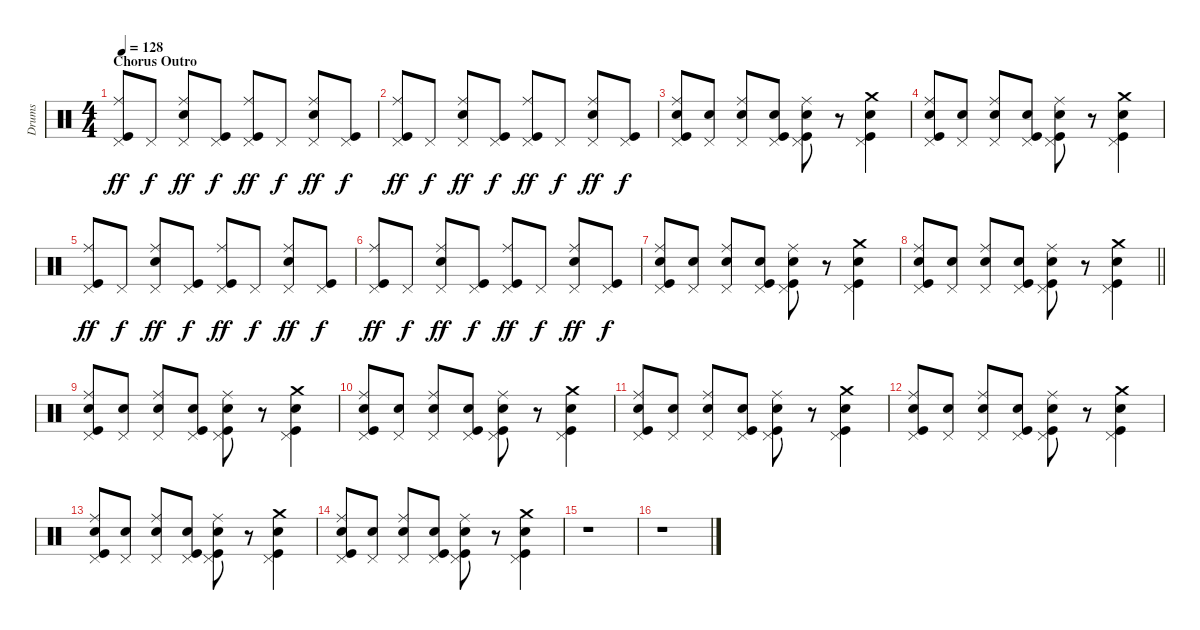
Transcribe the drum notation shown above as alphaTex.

\track ("Drums" "Drums") {instrument percussion}
\staff {score}
\articulation defaults
\ts (4 4)
\section ("" "Chorus Outro")
\tempo 128
\clef neutral
\ks c
("Ride (middle)" "Pedal Hi-Hat (hit)" "Kick (hit)").8{dy ff} "Pedal Hi-Hat (hit)".8{dy f} ("Ride (middle)" "Snare (hit) 2" "Pedal Hi-Hat (hit)").8{dy ff} ("Pedal Hi-Hat (hit)" "Kick (hit)").8{dy f} ("Ride (middle)" "Pedal Hi-Hat (hit)" "Kick (hit)").8{dy ff} "Pedal Hi-Hat (hit)".8{dy f} ("Ride (middle)" "Snare (hit) 2" "Pedal Hi-Hat (hit)").8{dy ff} ("Pedal Hi-Hat (hit)" "Kick (hit)").8{dy f} |
("Ride (middle)" "Pedal Hi-Hat (hit)" "Kick (hit)").8{dy ff} "Pedal Hi-Hat (hit)".8{dy f} ("Ride (middle)" "Snare (hit) 2" "Pedal Hi-Hat (hit)").8{dy ff} ("Pedal Hi-Hat (hit)" "Kick (hit)").8{dy f} ("Ride (middle)" "Pedal Hi-Hat (hit)" "Kick (hit)").8{dy ff} "Pedal Hi-Hat (hit)".8{dy f} ("Ride (middle)" "Snare (hit) 2" "Pedal Hi-Hat (hit)").8{dy ff} ("Pedal Hi-Hat (hit)" "Kick (hit)").8{dy f} |
("Ride (middle)" "Pedal Hi-Hat (hit)" "Snare (hit) 2" "Kick (hit)").8 ("Pedal Hi-Hat (hit)" "Snare (hit) 2").8 ("Ride (middle)" "Pedal Hi-Hat (hit)" "Snare (hit) 2").8 ("Pedal Hi-Hat (hit)" "Snare (hit) 2" "Kick (hit)").8 ("Ride (middle)" "Pedal Hi-Hat (hit)" "Snare (hit) 2" "Kick (hit)").8 r.8 ("Crash medium (hit)" "Pedal Hi-Hat (hit)" "Snare (hit) 2" "Kick (hit)").4 |
("Ride (middle)" "Pedal Hi-Hat (hit)" "Snare (hit) 2" "Kick (hit)").8 ("Pedal Hi-Hat (hit)" "Snare (hit) 2").8 ("Ride (middle)" "Pedal Hi-Hat (hit)" "Snare (hit) 2").8 ("Pedal Hi-Hat (hit)" "Snare (hit) 2" "Kick (hit)").8 ("Ride (middle)" "Pedal Hi-Hat (hit)" "Snare (hit) 2" "Kick (hit)").8 r.8 ("Crash medium (hit)" "Pedal Hi-Hat (hit)" "Snare (hit) 2" "Kick (hit)").4 |
("Ride (middle)" "Pedal Hi-Hat (hit)" "Kick (hit)").8{dy ff} "Pedal Hi-Hat (hit)".8{dy f} ("Ride (middle)" "Snare (hit) 2" "Pedal Hi-Hat (hit)").8{dy ff} ("Pedal Hi-Hat (hit)" "Kick (hit)").8{dy f} ("Ride (middle)" "Pedal Hi-Hat (hit)" "Kick (hit)").8{dy ff} "Pedal Hi-Hat (hit)".8{dy f} ("Ride (middle)" "Snare (hit) 2" "Pedal Hi-Hat (hit)").8{dy ff} ("Pedal Hi-Hat (hit)" "Kick (hit)").8{dy f} |
("Ride (middle)" "Pedal Hi-Hat (hit)" "Kick (hit)").8{dy ff} "Pedal Hi-Hat (hit)".8{dy f} ("Ride (middle)" "Snare (hit) 2" "Pedal Hi-Hat (hit)").8{dy ff} ("Pedal Hi-Hat (hit)" "Kick (hit)").8{dy f} ("Ride (middle)" "Pedal Hi-Hat (hit)" "Kick (hit)").8{dy ff} "Pedal Hi-Hat (hit)".8{dy f} ("Ride (middle)" "Snare (hit) 2" "Pedal Hi-Hat (hit)").8{dy ff} ("Pedal Hi-Hat (hit)" "Kick (hit)").8{dy f} |
("Ride (middle)" "Pedal Hi-Hat (hit)" "Snare (hit) 2" "Kick (hit)").8 ("Pedal Hi-Hat (hit)" "Snare (hit) 2").8 ("Ride (middle)" "Pedal Hi-Hat (hit)" "Snare (hit) 2").8 ("Pedal Hi-Hat (hit)" "Snare (hit) 2" "Kick (hit)").8 ("Ride (middle)" "Pedal Hi-Hat (hit)" "Snare (hit) 2" "Kick (hit)").8 r.8 ("Crash medium (hit)" "Pedal Hi-Hat (hit)" "Snare (hit) 2" "Kick (hit)").4 |
\barLineRight lightlight
("Ride (middle)" "Pedal Hi-Hat (hit)" "Snare (hit) 2" "Kick (hit)").8 ("Pedal Hi-Hat (hit)" "Snare (hit) 2").8 ("Ride (middle)" "Pedal Hi-Hat (hit)" "Snare (hit) 2").8 ("Pedal Hi-Hat (hit)" "Snare (hit) 2" "Kick (hit)").8 ("Ride (middle)" "Pedal Hi-Hat (hit)" "Snare (hit) 2" "Kick (hit)").8 r.8 ("Crash medium (hit)" "Pedal Hi-Hat (hit)" "Snare (hit) 2" "Kick (hit)").4 |
("Ride (middle)" "Pedal Hi-Hat (hit)" "Snare (hit) 2" "Kick (hit)").8 ("Pedal Hi-Hat (hit)" "Snare (hit) 2").8 ("Ride (middle)" "Pedal Hi-Hat (hit)" "Snare (hit) 2").8 ("Pedal Hi-Hat (hit)" "Snare (hit) 2" "Kick (hit)").8 ("Ride (middle)" "Pedal Hi-Hat (hit)" "Snare (hit) 2" "Kick (hit)").8 r.8 ("Crash medium (hit)" "Pedal Hi-Hat (hit)" "Snare (hit) 2" "Kick (hit)").4 |
("Ride (middle)" "Pedal Hi-Hat (hit)" "Snare (hit) 2" "Kick (hit)").8 ("Pedal Hi-Hat (hit)" "Snare (hit) 2").8 ("Ride (middle)" "Pedal Hi-Hat (hit)" "Snare (hit) 2").8 ("Pedal Hi-Hat (hit)" "Snare (hit) 2" "Kick (hit)").8 ("Ride (middle)" "Pedal Hi-Hat (hit)" "Snare (hit) 2" "Kick (hit)").8 r.8 ("Crash medium (hit)" "Pedal Hi-Hat (hit)" "Snare (hit) 2" "Kick (hit)").4 |
("Ride (middle)" "Pedal Hi-Hat (hit)" "Snare (hit) 2" "Kick (hit)").8 ("Pedal Hi-Hat (hit)" "Snare (hit) 2").8 ("Ride (middle)" "Pedal Hi-Hat (hit)" "Snare (hit) 2").8 ("Pedal Hi-Hat (hit)" "Snare (hit) 2" "Kick (hit)").8 ("Ride (middle)" "Pedal Hi-Hat (hit)" "Snare (hit) 2" "Kick (hit)").8 r.8 ("Crash medium (hit)" "Pedal Hi-Hat (hit)" "Snare (hit) 2" "Kick (hit)").4 |
("Ride (middle)" "Pedal Hi-Hat (hit)" "Snare (hit) 2" "Kick (hit)").8 ("Pedal Hi-Hat (hit)" "Snare (hit) 2").8 ("Ride (middle)" "Pedal Hi-Hat (hit)" "Snare (hit) 2").8 ("Pedal Hi-Hat (hit)" "Snare (hit) 2" "Kick (hit)").8 ("Ride (middle)" "Pedal Hi-Hat (hit)" "Snare (hit) 2" "Kick (hit)").8 r.8 ("Crash medium (hit)" "Pedal Hi-Hat (hit)" "Snare (hit) 2" "Kick (hit)").4 |
("Ride (middle)" "Pedal Hi-Hat (hit)" "Snare (hit) 2" "Kick (hit)").8 ("Pedal Hi-Hat (hit)" "Snare (hit) 2").8 ("Ride (middle)" "Pedal Hi-Hat (hit)" "Snare (hit) 2").8 ("Pedal Hi-Hat (hit)" "Snare (hit) 2" "Kick (hit)").8 ("Ride (middle)" "Pedal Hi-Hat (hit)" "Snare (hit) 2" "Kick (hit)").8 r.8 ("Crash medium (hit)" "Pedal Hi-Hat (hit)" "Snare (hit) 2" "Kick (hit)").4 |
("Ride (middle)" "Pedal Hi-Hat (hit)" "Snare (hit) 2" "Kick (hit)").8 ("Pedal Hi-Hat (hit)" "Snare (hit) 2").8 ("Ride (middle)" "Pedal Hi-Hat (hit)" "Snare (hit) 2").8 ("Pedal Hi-Hat (hit)" "Snare (hit) 2" "Kick (hit)").8 ("Ride (middle)" "Pedal Hi-Hat (hit)" "Snare (hit) 2" "Kick (hit)").8 r.8 ("Crash medium (hit)" "Pedal Hi-Hat (hit)" "Snare (hit) 2" "Kick (hit)").4 |
r.1 |
r.1
